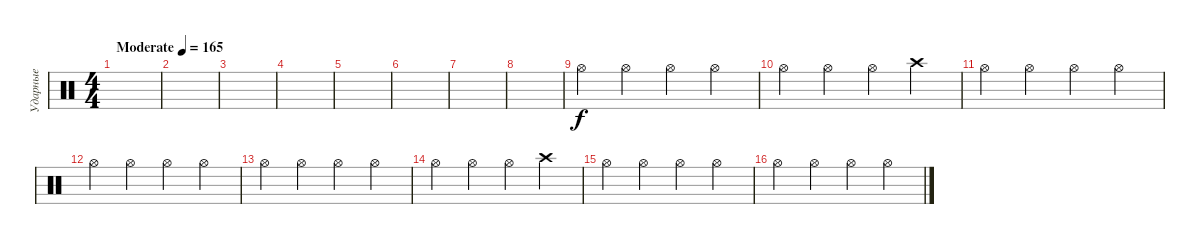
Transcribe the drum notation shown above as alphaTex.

\track ("Ударные" "Ударные") {instrument percussion}
\staff {score}
\articulation defaults
\ts (4 4)
\tempo (165 "Moderate")
\clef neutral
\ks c
|
|
|
|
|
|
|
|
"Hi-Hat (open)".4 "Hi-Hat (open)".4 "Hi-Hat (open)".4 "Hi-Hat (open)".4 |
"Hi-Hat (open)".4 "Hi-Hat (open)".4 "Hi-Hat (open)".4 "Crash high (hit)".4 |
"Hi-Hat (open)".4 "Hi-Hat (open)".4 "Hi-Hat (open)".4 "Hi-Hat (open)".4 |
"Hi-Hat (open)".4 "Hi-Hat (open)".4 "Hi-Hat (open)".4 "Hi-Hat (open)".4 |
"Hi-Hat (open)".4 "Hi-Hat (open)".4 "Hi-Hat (open)".4 "Hi-Hat (open)".4 |
"Hi-Hat (open)".4 "Hi-Hat (open)".4 "Hi-Hat (open)".4 "Crash high (hit)".4 |
"Hi-Hat (open)".4 "Hi-Hat (open)".4 "Hi-Hat (open)".4 "Hi-Hat (open)".4 |
"Hi-Hat (open)".4 "Hi-Hat (open)".4 "Hi-Hat (open)".4 "Hi-Hat (open)".4
